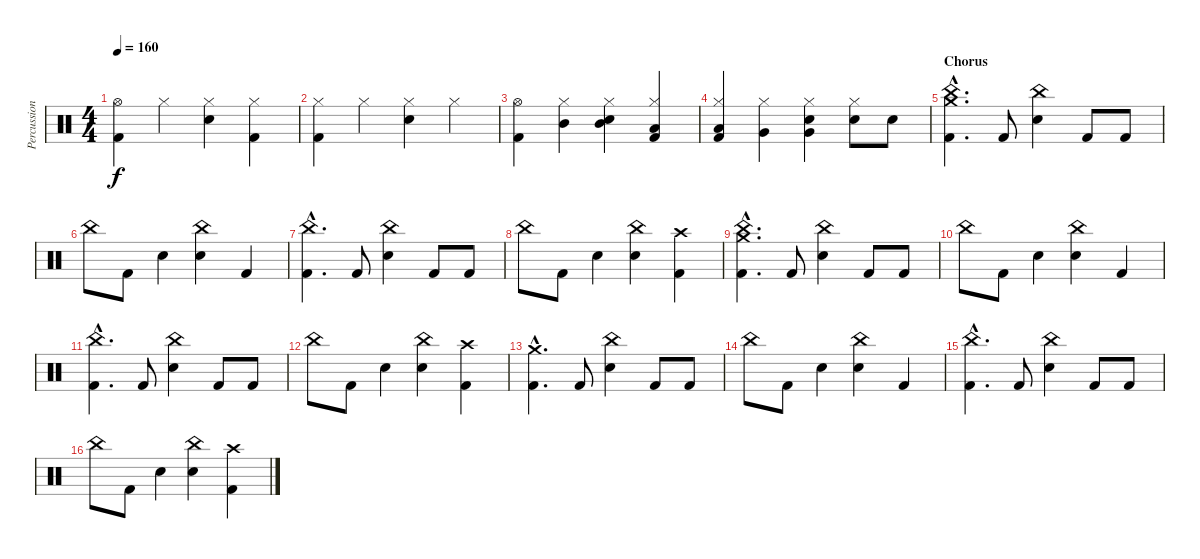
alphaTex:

\track ("Percussion" "Percussion") {instrument percussion}
\staff {score}
\articulation defaults
\ts (4 4)
\tempo 160
\clef neutral
\ks c
("Hi-Hat (open)" "Kick (hit) 2").4{dy f} "Hi-Hat (closed)".4 ("Hi-Hat (closed)" "Electric Snare (hit)").4 ("Hi-Hat (closed)" "Kick (hit) 2").4 |
("Hi-Hat (closed)" "Kick (hit) 2").4 "Hi-Hat (closed)".4 ("Hi-Hat (closed)" "Electric Snare (hit)").4 "Hi-Hat (closed)".4 |
("Hi-Hat (open)" "Kick (hit) 2").4 ("Hi-Hat (closed)" "Mid Tom (hit)").4 ("Hi-Hat (closed)" "Mid Tom (hit)" "Electric Snare (hit)").4 ("Hi-Hat (closed)" "Low Tom (hit)" "Kick (hit) 2").4 |
("Hi-Hat (closed)" "Low Tom (hit)" "Kick (hit) 2").4 ("Hi-Hat (closed)" "Very Low Tom (hit)").4 ("Hi-Hat (closed)" "Very Low Tom (hit)" "Electric Snare (hit)").4 ("Hi-Hat (closed)" "Electric Snare (hit)").8 "Electric Snare (hit)".8 |
\section ("" "Chorus")
("China (hit)"{hac} "Crash medium (hit)"{hac} "Kick (hit) 2"{hac}).4{d} "Kick (hit) 2".8 ("China (hit)" "Electric Snare (hit)").4 "Kick (hit) 2".8 "Kick (hit) 2".8 |
"China (hit)".8 "Kick (hit) 2".8 "Electric Snare (hit)".4 ("China (hit)" "Electric Snare (hit)").4 "Kick (hit) 2".4 |
("China (hit)"{hac} "Kick (hit) 2"{hac}).4{d} "Kick (hit) 2".8 ("China (hit)" "Electric Snare (hit)").4 "Kick (hit) 2".8 "Kick (hit) 2".8 |
"China (hit)".8 "Kick (hit) 2".8 "Electric Snare (hit)".4 ("China (hit)" "Electric Snare (hit)").4 ("Crash high (hit)" "Kick (hit) 2").4 |
("China (hit)"{hac} "Crash medium (hit)"{hac} "Kick (hit) 2"{hac}).4{d} "Kick (hit) 2".8 ("China (hit)" "Electric Snare (hit)").4 "Kick (hit) 2".8 "Kick (hit) 2".8 |
"China (hit)".8 "Kick (hit) 2".8 "Electric Snare (hit)".4 ("China (hit)" "Electric Snare (hit)").4 "Kick (hit) 2".4 |
("China (hit)"{hac} "Kick (hit) 2"{hac}).4{d} "Kick (hit) 2".8 ("China (hit)" "Electric Snare (hit)").4 "Kick (hit) 2".8 "Kick (hit) 2".8 |
"China (hit)".8 "Kick (hit) 2".8 "Electric Snare (hit)".4 ("China (hit)" "Electric Snare (hit)").4 ("Crash high (hit)" "Kick (hit) 2").4 |
("Crash medium (hit)"{hac} "Kick (hit) 2"{hac}).4{d} "Kick (hit) 2".8 ("China (hit)" "Electric Snare (hit)").4 "Kick (hit) 2".8 "Kick (hit) 2".8 |
"China (hit)".8 "Kick (hit) 2".8 "Electric Snare (hit)".4 ("China (hit)" "Electric Snare (hit)").4 "Kick (hit) 2".4 |
("China (hit)"{hac} "Kick (hit) 2"{hac}).4{d} "Kick (hit) 2".8 ("China (hit)" "Electric Snare (hit)").4 "Kick (hit) 2".8 "Kick (hit) 2".8 |
"China (hit)".8 "Kick (hit) 2".8 "Electric Snare (hit)".4 ("China (hit)" "Electric Snare (hit)").4 ("Crash high (hit)" "Kick (hit) 2").4
